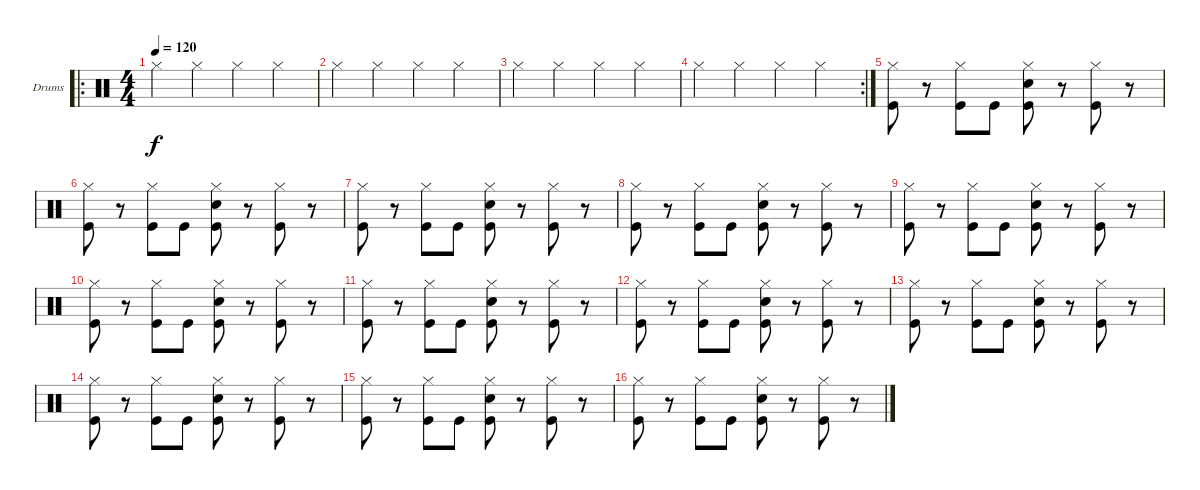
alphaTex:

\defaultSystemsLayout 4
\bracketExtendMode groupsimilarinstruments
\firstSystemTrackNameOrientation horizontal
\otherSystemsTrackNameOrientation horizontal
\track ("Drumkit" "Drums") {instrument percussion}
\staff {score}
\articulation defaults
\ro
\ts (4 4)
\tempo 120
\clef neutral
\scale
0.502222
\ks c "Hi-Hat (closed)".4{dy f} "Hi-Hat (closed)".4 "Hi-Hat (closed)".4 "Hi-Hat (closed)".4
|
\scale
0.248889 "Hi-Hat (closed)".4 "Hi-Hat (closed)".4 "Hi-Hat (closed)".4 "Hi-Hat (closed)".4 |
\scale
0.248889 "Hi-Hat (closed)".4 "Hi-Hat (closed)".4 "Hi-Hat (closed)".4 "Hi-Hat (closed)".4 |
\rc 2
\scale
0.356322 "Hi-Hat (closed)".4 "Hi-Hat (closed)".4 "Hi-Hat (closed)".4 "Hi-Hat (closed)".4 |
\scale
0.321839 ("Hi-Hat (closed)" "Kick (hit)").8 r.8 ("Hi-Hat (closed)" "Kick (hit)").8 "Kick (hit)".8 ("Hi-Hat (closed)" "Kick (hit)" "Snare (hit) 2").8 r.8 ("Hi-Hat (closed)" "Kick (hit)").8 r.8 |
\scale
0.321839 ("Hi-Hat (closed)" "Kick (hit)").8 r.8 ("Hi-Hat (closed)" "Kick (hit)").8 "Kick (hit)".8 ("Hi-Hat (closed)" "Kick (hit)" "Snare (hit) 2").8 r.8 ("Hi-Hat (closed)" "Kick (hit)").8 r.8 |
\scale
0.333333 ("Hi-Hat (closed)" "Kick (hit)").8 r.8 ("Hi-Hat (closed)" "Kick (hit)").8 "Kick (hit)".8 ("Hi-Hat (closed)" "Kick (hit)" "Snare (hit) 2").8 r.8 ("Hi-Hat (closed)" "Kick (hit)").8 r.8 |
\scale
0.333333 ("Hi-Hat (closed)" "Kick (hit)").8 r.8 ("Hi-Hat (closed)" "Kick (hit)").8 "Kick (hit)".8 ("Hi-Hat (closed)" "Kick (hit)" "Snare (hit) 2").8 r.8 ("Hi-Hat (closed)" "Kick (hit)").8 r.8 |
\scale
0.333333 ("Hi-Hat (closed)" "Kick (hit)").8 r.8 ("Hi-Hat (closed)" "Kick (hit)").8 "Kick (hit)".8 ("Hi-Hat (closed)" "Kick (hit)" "Snare (hit) 2").8 r.8 ("Hi-Hat (closed)" "Kick (hit)").8 r.8 |
\scale
0.333333 ("Hi-Hat (closed)" "Kick (hit)").8 r.8 ("Hi-Hat (closed)" "Kick (hit)").8 "Kick (hit)".8 ("Hi-Hat (closed)" "Kick (hit)" "Snare (hit) 2").8 r.8 ("Hi-Hat (closed)" "Kick (hit)").8 r.8 |
\scale
0.333333 ("Hi-Hat (closed)" "Kick (hit)").8 r.8 ("Hi-Hat (closed)" "Kick (hit)").8 "Kick (hit)".8 ("Hi-Hat (closed)" "Kick (hit)" "Snare (hit) 2").8 r.8 ("Hi-Hat (closed)" "Kick (hit)").8 r.8 |
\scale
0.333333 ("Hi-Hat (closed)" "Kick (hit)").8 r.8 ("Hi-Hat (closed)" "Kick (hit)").8 "Kick (hit)".8 ("Hi-Hat (closed)" "Kick (hit)" "Snare (hit) 2").8 r.8 ("Hi-Hat (closed)" "Kick (hit)").8 r.8 |
\scale
0.333333 ("Hi-Hat (closed)" "Kick (hit)").8 r.8 ("Hi-Hat (closed)" "Kick (hit)").8 "Kick (hit)".8 ("Hi-Hat (closed)" "Kick (hit)" "Snare (hit) 2").8 r.8 ("Hi-Hat (closed)" "Kick (hit)").8 r.8 |
\scale
0.333333 ("Hi-Hat (closed)" "Kick (hit)").8 r.8 ("Hi-Hat (closed)" "Kick (hit)").8 "Kick (hit)".8 ("Hi-Hat (closed)" "Kick (hit)" "Snare (hit) 2").8 r.8 ("Hi-Hat (closed)" "Kick (hit)").8 r.8 |
\scale
0.333333 ("Hi-Hat (closed)" "Kick (hit)").8 r.8 ("Hi-Hat (closed)" "Kick (hit)").8 "Kick (hit)".8 ("Hi-Hat (closed)" "Kick (hit)" "Snare (hit) 2").8 r.8 ("Hi-Hat (closed)" "Kick (hit)").8 r.8 |
\scale
0.333333 ("Hi-Hat (closed)" "Kick (hit)").8 r.8 ("Hi-Hat (closed)" "Kick (hit)").8 "Kick (hit)".8 ("Hi-Hat (closed)" "Kick (hit)" "Snare (hit) 2").8 r.8 ("Hi-Hat (closed)" "Kick (hit)").8 r.8
